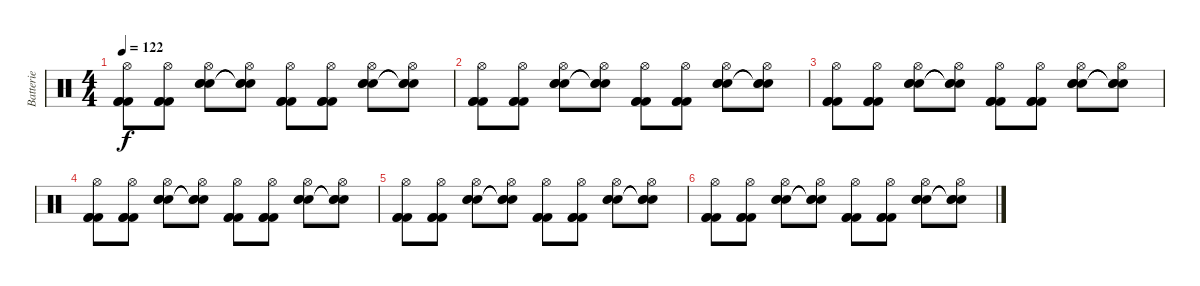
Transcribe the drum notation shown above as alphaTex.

\track ("Batterie" "Batterie") {instrument percussion}
\staff {score}
\articulation defaults
\ts (4 4)
\tempo 122
\clef neutral
\ks c
("Hi-Hat (open)" "Kick (hit) 2" "Kick (hit) 2" "Kick (hit) 2").8{dy f} ("Hi-Hat (open)" "Kick (hit) 2" "Kick (hit) 2" "Kick (hit) 2").8 ("Hi-Hat (open)" "Snare (hit) 2" "Snare (hit) 2" "Snare (hit) 2").8 ("Hi-Hat (open)" "Snare (hit)"{t} "Snare (hit)"{t} "Snare (hit)"{t}).8 ("Hi-Hat (open)" "Kick (hit) 2" "Kick (hit) 2" "Kick (hit) 2").8 ("Hi-Hat (open)" "Kick (hit) 2" "Kick (hit) 2" "Kick (hit) 2").8 ("Hi-Hat (open)" "Snare (hit) 2" "Snare (hit) 2" "Snare (hit) 2").8 ("Hi-Hat (open)" "Snare (hit)"{t} "Snare (hit)"{t} "Snare (hit)"{t}).8 |
("Hi-Hat (open)" "Kick (hit) 2" "Kick (hit) 2" "Kick (hit) 2").8 ("Hi-Hat (open)" "Kick (hit) 2" "Kick (hit) 2" "Kick (hit) 2").8 ("Hi-Hat (open)" "Snare (hit) 2" "Snare (hit) 2" "Snare (hit) 2").8 ("Hi-Hat (open)" "Snare (hit)"{t} "Snare (hit)"{t} "Snare (hit)"{t}).8 ("Hi-Hat (open)" "Kick (hit) 2" "Kick (hit) 2" "Kick (hit) 2").8 ("Hi-Hat (open)" "Kick (hit) 2" "Kick (hit) 2" "Kick (hit) 2").8 ("Hi-Hat (open)" "Snare (hit) 2" "Snare (hit) 2" "Snare (hit) 2").8 ("Hi-Hat (open)" "Snare (hit)"{t} "Snare (hit)"{t} "Snare (hit)"{t}).8 |
("Hi-Hat (open)" "Kick (hit) 2" "Kick (hit) 2" "Kick (hit) 2").8 ("Hi-Hat (open)" "Kick (hit) 2" "Kick (hit) 2" "Kick (hit) 2").8 ("Hi-Hat (open)" "Snare (hit) 2" "Snare (hit) 2" "Snare (hit) 2").8 ("Hi-Hat (open)" "Snare (hit)"{t} "Snare (hit)"{t} "Snare (hit)"{t}).8 ("Hi-Hat (open)" "Kick (hit) 2" "Kick (hit) 2" "Kick (hit) 2").8 ("Hi-Hat (open)" "Kick (hit) 2" "Kick (hit) 2" "Kick (hit) 2").8 ("Hi-Hat (open)" "Snare (hit) 2" "Snare (hit) 2" "Snare (hit) 2").8 ("Hi-Hat (open)" "Snare (hit)"{t} "Snare (hit)"{t} "Snare (hit)"{t}).8 |
("Hi-Hat (open)" "Kick (hit) 2" "Kick (hit) 2" "Kick (hit) 2").8{volume 0} ("Hi-Hat (open)" "Kick (hit) 2" "Kick (hit) 2" "Kick (hit) 2").8 ("Hi-Hat (open)" "Snare (hit) 2" "Snare (hit) 2" "Snare (hit) 2").8 ("Hi-Hat (open)" "Snare (hit)"{t} "Snare (hit)"{t} "Snare (hit)"{t}).8 ("Hi-Hat (open)" "Kick (hit) 2" "Kick (hit) 2" "Kick (hit) 2").8 ("Hi-Hat (open)" "Kick (hit) 2" "Kick (hit) 2" "Kick (hit) 2").8 ("Hi-Hat (open)" "Snare (hit) 2" "Snare (hit) 2" "Snare (hit) 2").8 ("Hi-Hat (open)" "Snare (hit)"{t} "Snare (hit)"{t} "Snare (hit)"{t}).8 |
("Hi-Hat (open)" "Kick (hit) 2" "Kick (hit) 2" "Kick (hit) 2").8 ("Hi-Hat (open)" "Kick (hit) 2" "Kick (hit) 2" "Kick (hit) 2").8 ("Hi-Hat (open)" "Snare (hit) 2" "Snare (hit) 2" "Snare (hit) 2").8 ("Hi-Hat (open)" "Snare (hit)"{t} "Snare (hit)"{t} "Snare (hit)"{t}).8 ("Hi-Hat (open)" "Kick (hit) 2" "Kick (hit) 2" "Kick (hit) 2").8 ("Hi-Hat (open)" "Kick (hit) 2" "Kick (hit) 2" "Kick (hit) 2").8 ("Hi-Hat (open)" "Snare (hit) 2" "Snare (hit) 2" "Snare (hit) 2").8 ("Hi-Hat (open)" "Snare (hit)"{t} "Snare (hit)"{t} "Snare (hit)"{t}).8 |
("Hi-Hat (open)" "Kick (hit) 2" "Kick (hit) 2" "Kick (hit) 2").8 ("Hi-Hat (open)" "Kick (hit) 2" "Kick (hit) 2" "Kick (hit) 2").8 ("Hi-Hat (open)" "Snare (hit) 2" "Snare (hit) 2" "Snare (hit) 2").8 ("Hi-Hat (open)" "Snare (hit)"{t} "Snare (hit)"{t} "Snare (hit)"{t}).8 ("Hi-Hat (open)" "Kick (hit) 2" "Kick (hit) 2" "Kick (hit) 2").8 ("Hi-Hat (open)" "Kick (hit) 2" "Kick (hit) 2" "Kick (hit) 2").8 ("Hi-Hat (open)" "Snare (hit) 2" "Snare (hit) 2" "Snare (hit) 2").8 ("Hi-Hat (open)" "Snare (hit)"{t} "Snare (hit)"{t} "Snare (hit)"{t}).8
